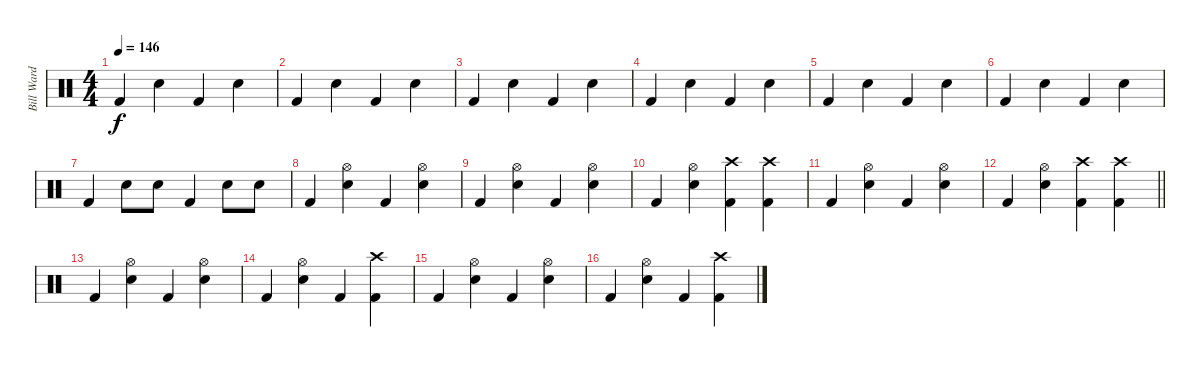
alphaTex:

\track ("Bill Ward" "Bill Ward") {instrument percussion}
\staff {score}
\articulation defaults
\ts (4 4)
\tempo 146
\clef neutral
\ks c "Kick (hit) 2".4{dy f} "Snare (hit) 2".4 "Kick (hit) 2".4 "Snare (hit) 2".4
|
"Kick (hit) 2".4 "Snare (hit) 2".4 "Kick (hit) 2".4 "Snare (hit) 2".4 |
"Kick (hit) 2".4 "Snare (hit) 2".4 "Kick (hit) 2".4 "Snare (hit) 2".4 |
"Kick (hit) 2".4 "Snare (hit) 2".4 "Kick (hit) 2".4 "Snare (hit) 2".4 |
"Kick (hit) 2".4 "Snare (hit) 2".4 "Kick (hit) 2".4 "Snare (hit) 2".4 |
"Kick (hit) 2".4 "Snare (hit) 2".4 "Kick (hit) 2".4 "Snare (hit) 2".4 |
"Kick (hit) 2".4 "Snare (hit) 2".8 "Snare (hit) 2".8 "Kick (hit) 2".4 "Snare (hit) 2".8 "Snare (hit) 2".8 |
"Kick (hit) 2".4 ("Hi-Hat (open)" "Snare (hit) 2").4 "Kick (hit) 2".4 ("Hi-Hat (open)" "Snare (hit) 2").4 |
"Kick (hit) 2".4 ("Hi-Hat (open)" "Snare (hit) 2").4 "Kick (hit) 2".4 ("Hi-Hat (open)" "Snare (hit) 2").4 |
"Kick (hit) 2".4 ("Hi-Hat (open)" "Snare (hit) 2").4 ("Crash high (hit)" "Kick (hit) 2").4 ("Crash high (hit)" "Kick (hit) 2").4 |
"Kick (hit) 2".4 ("Hi-Hat (open)" "Snare (hit) 2").4 "Kick (hit) 2".4 ("Hi-Hat (open)" "Snare (hit) 2").4 |
\barLineRight lightlight "Kick (hit) 2".4
("Hi-Hat (open)" "Snare (hit) 2").4 ("Crash high (hit)" "Kick (hit) 2").4 ("Crash high (hit)" "Kick (hit) 2").4 |
"Kick (hit) 2".4 ("Hi-Hat (open)" "Snare (hit) 2").4 "Kick (hit) 2".4 ("Hi-Hat (open)" "Snare (hit) 2").4 |
"Kick (hit) 2".4 ("Hi-Hat (open)" "Snare (hit) 2").4 "Kick (hit) 2".4 ("Crash high (hit)" "Kick (hit) 2").4 |
"Kick (hit) 2".4 ("Hi-Hat (open)" "Snare (hit) 2").4 "Kick (hit) 2".4 ("Hi-Hat (open)" "Snare (hit) 2").4 |
"Kick (hit) 2".4 ("Hi-Hat (open)" "Snare (hit) 2").4 "Kick (hit) 2".4 ("Crash high (hit)" "Kick (hit) 2").4
